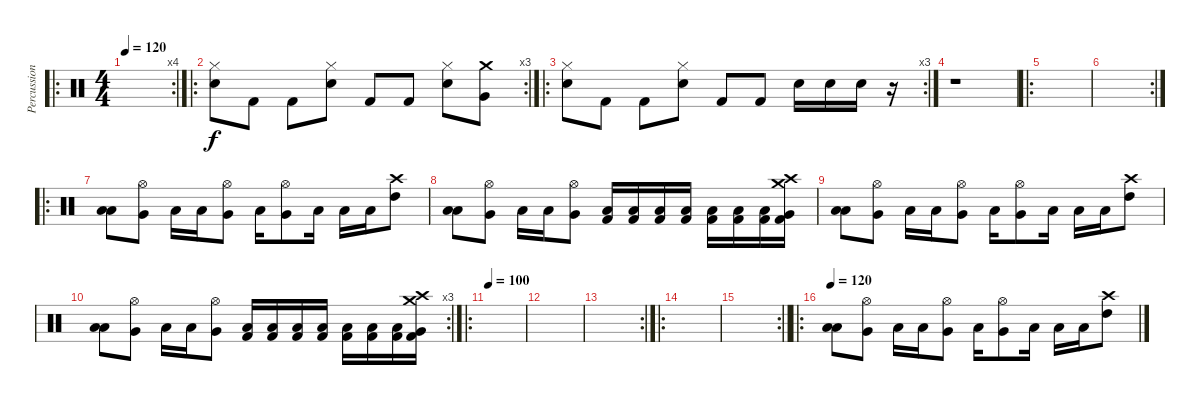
\track ("Percussion" "Percussion") {instrument percussion}
\staff {score}
\articulation defaults
\ro
\rc 4
\ts (4 4)
\tempo 120
\clef neutral
\ks c
|
\ro
\rc 3
("Hi-Hat (closed)" "Snare (hit) 2").8 "Kick (hit) 2".8 "Kick (hit) 2".8 ("Hi-Hat (closed)" "Snare (hit) 2").8 "Kick (hit) 2".8 "Kick (hit) 2".8 ("Hi-Hat (closed)" "Snare (hit) 2").8 ("Crash medium (hit)" "Very Low Tom (hit)").8 |
\ro
\rc 3
("Hi-Hat (closed)" "Snare (hit) 2").8 "Kick (hit) 2".8 "Kick (hit) 2".8 ("Hi-Hat (closed)" "Snare (hit) 2").8 "Kick (hit) 2".8 "Kick (hit) 2".8 "Electric Snare (hit)".16 "Electric Snare (hit)".16 "Electric Snare (hit)".16 r.16 |
r.1 |
\ro
|
\rc 2
|
\ro
("Low Floor Tom (hit)" "Low Floor Tom (hit)").8 ("Very Low Tom (hit)" "Hi-Hat (open)").8 "Low Floor Tom (hit)".16 "Low Floor Tom (hit)".16 ("Very Low Tom (hit)" "Hi-Hat (open)").8 "Low Floor Tom (hit)".16 ("Very Low Tom (hit)" "Hi-Hat (open)").8 "Low Floor Tom (hit)".16 "Low Floor Tom (hit)".16 "Low Floor Tom (hit)".16 ("Crash high (hit)" "High Tom (hit)").8 |
("Low Floor Tom (hit)" "Low Floor Tom (hit)").8 ("Very Low Tom (hit)" "Hi-Hat (open)").8 "Low Floor Tom (hit)".16 "Low Floor Tom (hit)".16 ("Very Low Tom (hit)" "Hi-Hat (open)").8 ("Low Floor Tom (hit)" "Kick (hit) 2").16 ("Low Floor Tom (hit)" "Kick (hit) 2").16 ("Low Floor Tom (hit)" "Kick (hit) 2").16 ("Low Floor Tom (hit)" "Kick (hit) 2").16 ("Low Floor Tom (hit)" "Kick (hit) 2").16 ("Low Floor Tom (hit)" "Kick (hit) 2").16 ("Low Floor Tom (hit)" "Kick (hit) 2").16 ("Very Low Tom (hit)" "Kick (hit) 2" "Crash high (hit)" "Crash medium (hit)").16 |
("Low Floor Tom (hit)" "Low Floor Tom (hit)").8 ("Very Low Tom (hit)" "Hi-Hat (open)").8 "Low Floor Tom (hit)".16 "Low Floor Tom (hit)".16 ("Very Low Tom (hit)" "Hi-Hat (open)").8 "Low Floor Tom (hit)".16 ("Very Low Tom (hit)" "Hi-Hat (open)").8 "Low Floor Tom (hit)".16 "Low Floor Tom (hit)".16 "Low Floor Tom (hit)".16 ("Crash high (hit)" "High Tom (hit)").8 |
\rc 3
("Low Floor Tom (hit)" "Low Floor Tom (hit)").8 ("Very Low Tom (hit)" "Hi-Hat (open)").8 "Low Floor Tom (hit)".16 "Low Floor Tom (hit)".16 ("Very Low Tom (hit)" "Hi-Hat (open)").8 ("Low Floor Tom (hit)" "Kick (hit) 2").16 ("Low Floor Tom (hit)" "Kick (hit) 2").16 ("Low Floor Tom (hit)" "Kick (hit) 2").16 ("Low Floor Tom (hit)" "Kick (hit) 2").16 ("Low Floor Tom (hit)" "Kick (hit) 2").16 ("Low Floor Tom (hit)" "Kick (hit) 2").16 ("Low Floor Tom (hit)" "Kick (hit) 2").16 ("Very Low Tom (hit)" "Kick (hit) 2" "Crash high (hit)" "Crash medium (hit)").16 |
\ro
\tempo 100
|
|
\rc 2
|
\ro
|
\rc 2
\barLineRight lightlight
|
\ro
\tempo 120
("Low Floor Tom (hit)" "Low Floor Tom (hit)").8 ("Very Low Tom (hit)" "Hi-Hat (open)").8 "Low Floor Tom (hit)".16 "Low Floor Tom (hit)".16 ("Very Low Tom (hit)" "Hi-Hat (open)").8 "Low Floor Tom (hit)".16 ("Very Low Tom (hit)" "Hi-Hat (open)").8 "Low Floor Tom (hit)".16 "Low Floor Tom (hit)".16 "Low Floor Tom (hit)".16 ("Crash high (hit)" "High Tom (hit)").8
